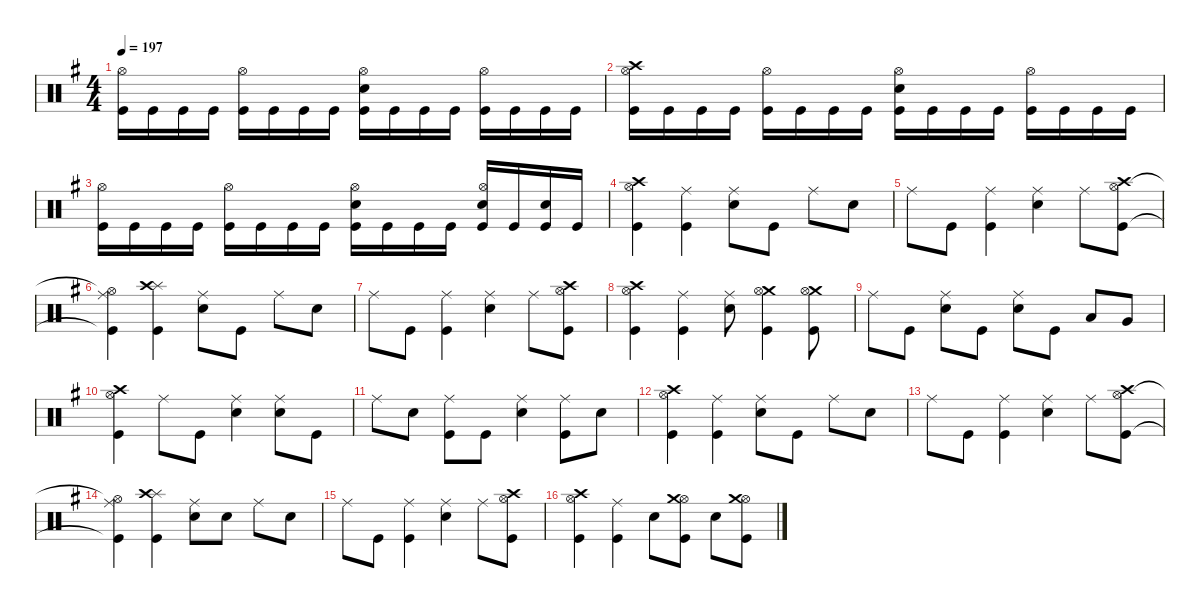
\defaultSystemsLayout 4
\hideDynamics
\bracketExtendMode nobrackets
\singleTrackTrackNamePolicy hidden
\multiTrackTrackNamePolicy hidden
\firstSystemTrackNameMode fullname
\firstSystemTrackNameOrientation horizontal
\otherSystemsTrackNameOrientation horizontal
\track ("Drums" "drm.") {defaultSystemsLayout 4 instrument percussion}
\staff {score}
\articulation defaults
\ts (4 4)
\tempo 197
\clef neutral
\ks eminor
("Hi-Hat (open)"{acc forcenatural} "Kick (hit)"{acc forcenatural}).16{dy f beam Down} "Kick (hit)"{acc forcenatural}.16{beam Down} "Kick (hit)"{acc forcenatural}.16{beam Down} "Kick (hit)"{acc forcenatural}.16{beam Down} ("Hi-Hat (open)"{acc forcenatural} "Kick (hit)"{acc forcenatural}).16{beam Down} "Kick (hit)"{acc forcenatural}.16{beam Down} "Kick (hit)"{acc forcenatural}.16{beam Down} "Kick (hit)"{acc forcenatural}.16{beam Down} ("Hi-Hat (open)"{acc forcenatural} "Snare (hit) 2"{acc forcenatural} "Kick (hit)"{acc forcenatural}).16{beam Down} "Kick (hit)"{acc forcenatural}.16{beam Down} "Kick (hit)"{acc forcenatural}.16{beam Down} "Kick (hit)"{acc forcenatural}.16{beam Down} ("Hi-Hat (open)"{acc forcenatural} "Kick (hit)"{acc forcenatural}).16{beam Down} "Kick (hit)"{acc forcenatural}.16{beam Down} "Kick (hit)"{acc forcenatural}.16{beam Down} "Kick (hit)"{acc forcenatural}.16{beam Down} |
("Crash high (hit)"{acc forcenatural} "Hi-Hat (open)"{acc forcenatural} "Kick (hit)"{acc forcenatural}).16{beam Down} "Kick (hit)"{acc forcenatural}.16{beam Down} "Kick (hit)"{acc forcenatural}.16{beam Down} "Kick (hit)"{acc forcenatural}.16{beam Down} ("Hi-Hat (open)"{acc forcenatural} "Kick (hit)"{acc forcenatural}).16{beam Down} "Kick (hit)"{acc forcenatural}.16{beam Down} "Kick (hit)"{acc forcenatural}.16{beam Down} "Kick (hit)"{acc forcenatural}.16{beam Down} ("Hi-Hat (open)"{acc forcenatural} "Snare (hit) 2"{acc forcenatural} "Kick (hit)"{acc forcenatural}).16{beam Down} "Kick (hit)"{acc forcenatural}.16{beam Down} "Kick (hit)"{acc forcenatural}.16{beam Down} "Kick (hit)"{acc forcenatural}.16{beam Down} ("Hi-Hat (open)"{acc forcenatural} "Kick (hit)"{acc forcenatural}).16{beam Down} "Kick (hit)"{acc forcenatural}.16{beam Down} "Kick (hit)"{acc forcenatural}.16{beam Down} "Kick (hit)"{acc forcenatural}.16{beam Down} |
("Hi-Hat (open)"{acc forcenatural} "Kick (hit)"{acc forcenatural}).16{beam Down} "Kick (hit)"{acc forcenatural}.16{beam Down} "Kick (hit)"{acc forcenatural}.16{beam Down} "Kick (hit)"{acc forcenatural}.16{beam Down} ("Hi-Hat (open)"{acc forcenatural} "Kick (hit)"{acc forcenatural}).16{beam Down} "Kick (hit)"{acc forcenatural}.16{beam Down} "Kick (hit)"{acc forcenatural}.16{beam Down} "Kick (hit)"{acc forcenatural}.16{beam Down} ("Hi-Hat (open)"{acc forcenatural} "Snare (hit) 2"{acc forcenatural} "Kick (hit)"{acc forcenatural}).16{beam Down} "Kick (hit)"{acc forcenatural}.16{beam Down} "Kick (hit)"{acc forcenatural}.16{beam Down} "Kick (hit)"{acc forcenatural}.16{beam Down} ("Hi-Hat (open)"{acc forcenatural} "Snare (hit) 2"{acc forcenatural} "Kick (hit)"{acc forcenatural}).16{beam Up} "Kick (hit)"{acc forcenatural}.16{beam Up} ("Snare (hit) 2"{acc forcenatural} "Kick (hit)"{acc forcenatural}).16{beam Up} "Kick (hit)"{acc forcenatural}.16{beam Up} |
("Hi-Hat (open)"{acc forcenatural} "Crash high (hit)"{acc forcenatural} "Kick (hit)"{acc forcenatural}).4{beam Down} ("Ride (middle)"{acc forcenatural} "Kick (hit)"{acc forcenatural}).4{beam Down} ("Ride (middle)"{acc forcenatural} "Snare (hit) 2"{acc forcenatural}).8{beam Down} "Kick (hit)"{acc forcenatural}.8{beam Down} "Ride (middle)"{acc forcenatural}.8{beam Down} "Snare (hit) 2"{acc forcenatural}.8{beam Down} |
"Ride (middle)"{acc forcenatural}.8{beam Down} "Kick (hit)"{acc forcenatural}.8{beam Down} ("Ride (middle)"{acc forcenatural} "Kick (hit)"{acc forcenatural}).4{beam Down} ("Ride (middle)"{acc forcenatural} "Snare (hit) 2"{acc forcenatural}).4{beam Down} "Ride (middle)"{acc forcenatural}.8{beam Down} ("Crash high (hit)"{acc forcenatural} "Hi-Hat (open)"{acc forcenatural} "Kick (hit)"{acc forcenatural}).8{beam Down} |
("Ride (middle)"{acc forcenatural} "Hi-Hat (open)"{t acc forcenatural} "Kick (hit)"{t acc forcenatural}).4{beam Down} ("Splash (hit)"{acc forcenatural} "Crash high (hit)"{acc forcenatural} "Kick (hit)"{acc forcenatural}).4{beam Down} ("Ride (middle)"{acc forcenatural} "Snare (hit) 2"{acc forcenatural}).8{beam Down} "Kick (hit)"{acc forcenatural}.8{beam Down} "Ride (middle)"{acc forcenatural}.8{beam Down} "Snare (hit) 2"{acc forcenatural}.8{beam Down} |
"Ride (middle)"{acc forcenatural}.8{beam Down} "Kick (hit)"{acc forcenatural}.8{beam Down} ("Ride (middle)"{acc forcenatural} "Kick (hit)"{acc forcenatural}).4{beam Down} ("Ride (middle)"{acc forcenatural} "Snare (hit) 2"{acc forcenatural}).4{beam Down} "Ride (middle)"{acc forcenatural}.8{beam Down} ("Crash high (hit)"{acc forcenatural} "Hi-Hat (open)"{acc forcenatural} "Kick (hit)"{acc forcenatural}).8{beam Down} |
("Hi-Hat (open)"{acc forcenatural} "Crash high (hit)"{acc forcenatural} "Kick (hit)"{acc forcenatural}).4{beam Down} ("Ride (middle)"{acc forcenatural} "Kick (hit)"{acc forcenatural}).4{beam Down} ("Ride (middle)"{acc forcenatural} "Snare (hit) 2"{acc forcenatural}).8{beam Down} ("Crash medium (hit)"{acc forcenatural} "Hi-Hat (open)"{acc forcenatural} "Kick (hit)"{acc forcenatural}).4{beam Down} ("Crash medium (hit)"{acc forcenatural} "Hi-Hat (open)"{acc forcenatural} "Kick (hit)"{acc forcenatural}).8{beam Down} |
"Ride (middle)"{acc forcenatural}.8{beam Down} "Kick (hit)"{acc forcenatural}.8{beam Down} ("Ride (middle)"{acc forcenatural} "Snare (hit) 2"{acc forcenatural}).8{beam Down} "Kick (hit)"{acc forcenatural}.8{beam Down} ("Ride (middle)"{acc forcenatural} "Snare (hit) 2"{acc forcenatural}).8{beam Down} "Kick (hit)"{acc forcenatural}.8{beam Down} "Low Tom (hit)"{acc forcenatural}.8{beam Up} "Very Low Tom (hit)"{acc forcenatural}.8{beam Up} |
("Hi-Hat (open)"{acc forcenatural} "Crash high (hit)"{acc forcenatural} "Kick (hit)"{acc forcenatural}).4{beam Down} "Ride (middle)"{acc forcenatural}.8{beam Down} "Kick (hit)"{acc forcenatural}.8{beam Down} ("Ride (middle)"{acc forcenatural} "Snare (hit) 2"{acc forcenatural}).4{beam Down} ("Ride (middle)"{acc forcenatural} "Snare (hit) 2"{acc forcenatural}).8{beam Down} "Kick (hit)"{acc forcenatural}.8{beam Down} |
"Ride (middle)"{acc forcenatural}.8{beam Down} "Snare (hit) 2"{acc forcenatural}.8{beam Down} ("Ride (middle)"{acc forcenatural} "Kick (hit)"{acc forcenatural}).8{beam Down} "Kick (hit)"{acc forcenatural}.8{beam Down} ("Ride (middle)"{acc forcenatural} "Snare (hit) 2"{acc forcenatural}).4{beam Down} ("Ride (middle)"{acc forcenatural} "Kick (hit)"{acc forcenatural}).8{beam Down} "Snare (hit) 2"{acc forcenatural}.8{beam Down} |
("Hi-Hat (open)"{acc forcenatural} "Crash high (hit)"{acc forcenatural} "Kick (hit)"{acc forcenatural}).4{beam Down} ("Ride (middle)"{acc forcenatural} "Kick (hit)"{acc forcenatural}).4{beam Down} ("Ride (middle)"{acc forcenatural} "Snare (hit) 2"{acc forcenatural}).8{beam Down} "Kick (hit)"{acc forcenatural}.8{beam Down} "Ride (middle)"{acc forcenatural}.8{beam Down} "Snare (hit) 2"{acc forcenatural}.8{beam Down} |
"Ride (middle)"{acc forcenatural}.8{beam Down} "Kick (hit)"{acc forcenatural}.8{beam Down} ("Ride (middle)"{acc forcenatural} "Kick (hit)"{acc forcenatural}).4{beam Down} ("Ride (middle)"{acc forcenatural} "Snare (hit) 2"{acc forcenatural}).4{beam Down} "Ride (middle)"{acc forcenatural}.8{beam Down} ("Crash high (hit)"{acc forcenatural} "Hi-Hat (open)"{acc forcenatural} "Kick (hit)"{acc forcenatural}).8{beam Down} |
("Ride (middle)"{acc forcenatural} "Hi-Hat (open)"{t acc forcenatural} "Kick (hit)"{t acc forcenatural}).4{beam Down} ("Splash (hit)"{acc forcenatural} "Crash high (hit)"{acc forcenatural} "Kick (hit)"{acc forcenatural}).4{beam Down} ("Ride (middle)"{acc forcenatural} "Snare (hit) 2"{acc forcenatural}).8{beam Down} "Snare (hit) 2"{acc forcenatural}.8{beam Down} "Ride (middle)"{acc forcenatural}.8{beam Down} "Snare (hit) 2"{acc forcenatural}.8{beam Down} |
"Ride (middle)"{acc forcenatural}.8{beam Down} "Kick (hit)"{acc forcenatural}.8{beam Down} ("Ride (middle)"{acc forcenatural} "Kick (hit)"{acc forcenatural}).4{beam Down} ("Ride (middle)"{acc forcenatural} "Snare (hit) 2"{acc forcenatural}).4{beam Down} "Ride (middle)"{acc forcenatural}.8{beam Down} ("Crash high (hit)"{acc forcenatural} "Hi-Hat (open)"{acc forcenatural} "Kick (hit)"{acc forcenatural}).8{beam Down} |
("Hi-Hat (open)"{acc forcenatural} "Crash high (hit)"{acc forcenatural} "Kick (hit)"{acc forcenatural}).4{beam Down} ("Ride (middle)"{acc forcenatural} "Kick (hit)"{acc forcenatural}).4{beam Down} "Snare (hit) 2"{acc forcenatural}.8{beam Down} ("Hi-Hat (open)"{acc forcenatural} "Crash medium (hit)"{acc forcenatural} "Kick (hit)"{acc forcenatural}).8{beam Down} "Snare (hit) 2"{acc forcenatural}.8{beam Down} ("Hi-Hat (open)"{acc forcenatural} "Crash medium (hit)"{acc forcenatural} "Kick (hit)"{acc forcenatural}).8{beam Down}
